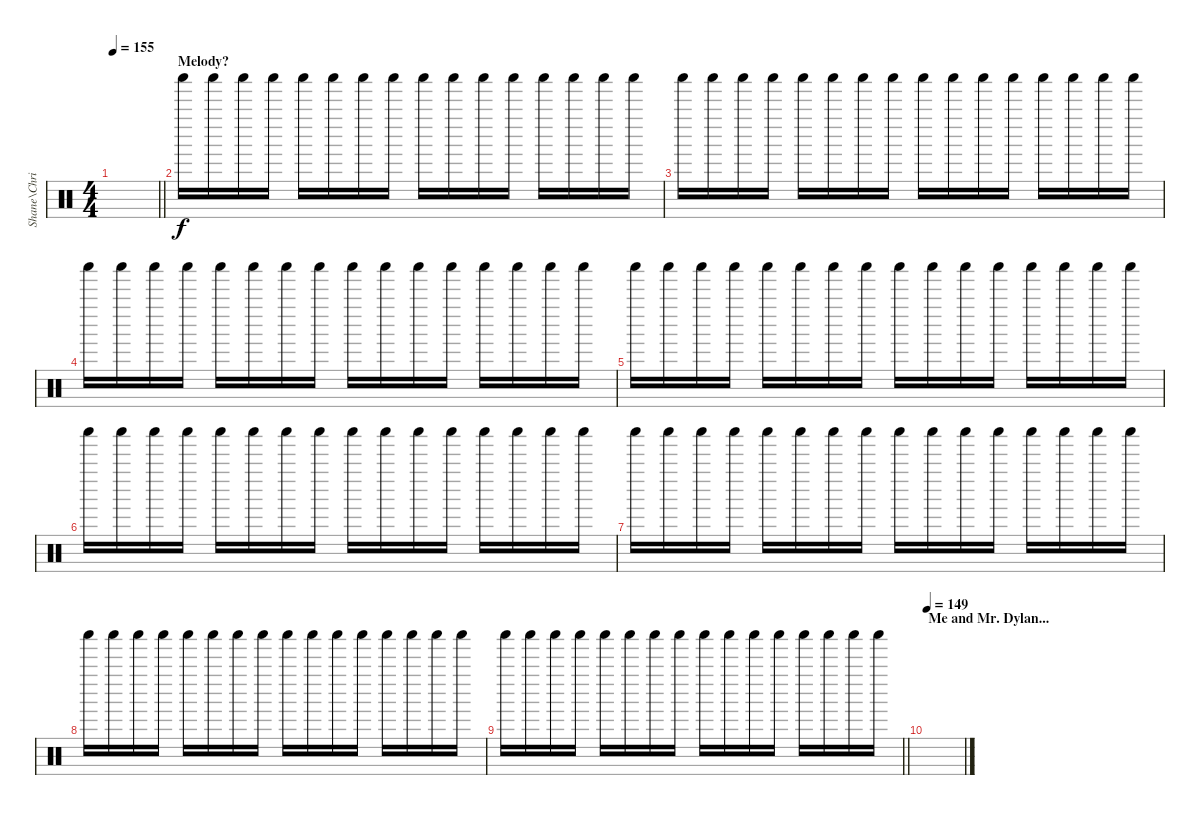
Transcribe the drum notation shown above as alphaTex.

\track ("Shane\\Chris - Percussion" "Shane\\Chri") {instrument percussion}
\staff {score}
\articulation defaults
\ts (4 4)
\tempo 155
\clef neutral
\barLineRight lightlight
\ks c
|
\section ("" "Melody?")
"Shaker (hit)".16 "Shaker (hit)".16 "Shaker (hit)".16 "Shaker (hit)".16 "Shaker (hit)".16 "Shaker (hit)".16 "Shaker (hit)".16 "Shaker (hit)".16 "Shaker (hit)".16 "Shaker (hit)".16 "Shaker (hit)".16 "Shaker (hit)".16 "Shaker (hit)".16 "Shaker (hit)".16 "Shaker (hit)".16 "Shaker (hit)".16 |
"Shaker (hit)".16 "Shaker (hit)".16 "Shaker (hit)".16 "Shaker (hit)".16 "Shaker (hit)".16 "Shaker (hit)".16 "Shaker (hit)".16 "Shaker (hit)".16 "Shaker (hit)".16 "Shaker (hit)".16 "Shaker (hit)".16 "Shaker (hit)".16 "Shaker (hit)".16 "Shaker (hit)".16 "Shaker (hit)".16 "Shaker (hit)".16 |
"Shaker (hit)".16 "Shaker (hit)".16 "Shaker (hit)".16 "Shaker (hit)".16 "Shaker (hit)".16 "Shaker (hit)".16 "Shaker (hit)".16 "Shaker (hit)".16 "Shaker (hit)".16 "Shaker (hit)".16 "Shaker (hit)".16 "Shaker (hit)".16 "Shaker (hit)".16 "Shaker (hit)".16 "Shaker (hit)".16 "Shaker (hit)".16 |
"Shaker (hit)".16 "Shaker (hit)".16 "Shaker (hit)".16 "Shaker (hit)".16 "Shaker (hit)".16 "Shaker (hit)".16 "Shaker (hit)".16 "Shaker (hit)".16 "Shaker (hit)".16 "Shaker (hit)".16 "Shaker (hit)".16 "Shaker (hit)".16 "Shaker (hit)".16 "Shaker (hit)".16 "Shaker (hit)".16 "Shaker (hit)".16 |
"Shaker (hit)".16 "Shaker (hit)".16 "Shaker (hit)".16 "Shaker (hit)".16 "Shaker (hit)".16 "Shaker (hit)".16 "Shaker (hit)".16 "Shaker (hit)".16 "Shaker (hit)".16 "Shaker (hit)".16 "Shaker (hit)".16 "Shaker (hit)".16 "Shaker (hit)".16 "Shaker (hit)".16 "Shaker (hit)".16 "Shaker (hit)".16 |
"Shaker (hit)".16 "Shaker (hit)".16 "Shaker (hit)".16 "Shaker (hit)".16 "Shaker (hit)".16 "Shaker (hit)".16 "Shaker (hit)".16 "Shaker (hit)".16 "Shaker (hit)".16 "Shaker (hit)".16 "Shaker (hit)".16 "Shaker (hit)".16 "Shaker (hit)".16 "Shaker (hit)".16 "Shaker (hit)".16 "Shaker (hit)".16 |
"Shaker (hit)".16 "Shaker (hit)".16 "Shaker (hit)".16 "Shaker (hit)".16 "Shaker (hit)".16 "Shaker (hit)".16 "Shaker (hit)".16 "Shaker (hit)".16 "Shaker (hit)".16 "Shaker (hit)".16 "Shaker (hit)".16 "Shaker (hit)".16 "Shaker (hit)".16 "Shaker (hit)".16 "Shaker (hit)".16 "Shaker (hit)".16 |
\barLineRight lightlight "Shaker (hit)".16 "Shaker (hit)".16 "Shaker (hit)".16 "Shaker (hit)".16 "Shaker (hit)".16 "Shaker (hit)".16 "Shaker (hit)".16 "Shaker (hit)".16 "Shaker (hit)".16 "Shaker (hit)".16 "Shaker (hit)".16 "Shaker (hit)".16 "Shaker (hit)".16 "Shaker (hit)".16 "Shaker (hit)".16 "Shaker (hit)".16
|
\section ("" "Me and Mr. Dylan...")
\tempo 149
